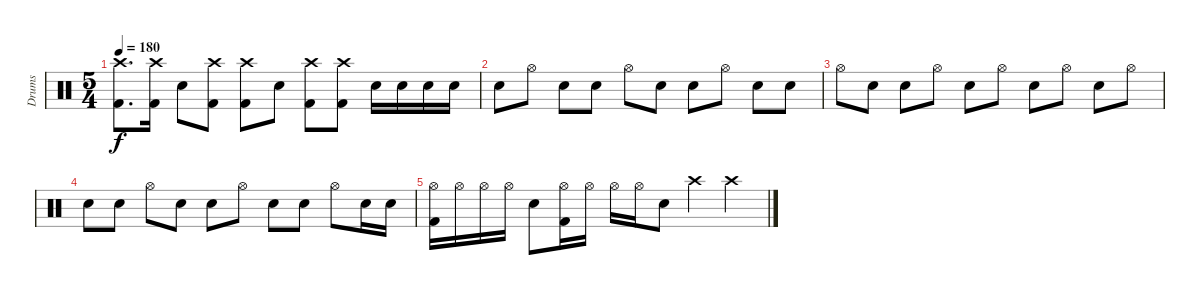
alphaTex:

\track ("Drums" "Drums") {instrument percussion}
\staff {score}
\articulation defaults
\ts (5 4)
\tempo 180
\clef neutral
\ks c
("Crash high (hit)" "Kick (hit) 2").8{d dy f} ("Crash high (hit)" "Kick (hit) 2").16 "Snare (hit) 2".8 ("Crash high (hit)" "Kick (hit) 2").8 ("Crash high (hit)" "Kick (hit) 2").8 "Snare (hit) 2".8 ("Crash high (hit)" "Kick (hit) 2").8 ("Crash high (hit)" "Kick (hit) 2").8 "Snare (hit) 2".16 "Snare (hit) 2".16 "Snare (hit) 2".16 "Snare (hit) 2".16 |
"Snare (hit) 2".8 "Hi-Hat (open)".8 "Snare (hit) 2".8 "Snare (hit) 2".8 "Hi-Hat (open)".8 "Snare (hit) 2".8 "Snare (hit) 2".8 "Hi-Hat (open)".8 "Snare (hit) 2".8 "Snare (hit) 2".8 |
"Hi-Hat (open)".8 "Snare (hit) 2".8 "Snare (hit) 2".8 "Hi-Hat (open)".8 "Snare (hit) 2".8 "Hi-Hat (open)".8 "Snare (hit) 2".8 "Hi-Hat (open)".8 "Snare (hit) 2".8 "Hi-Hat (open)".8 |
"Snare (hit) 2".8 "Snare (hit) 2".8 "Hi-Hat (open)".8 "Snare (hit) 2".8 "Snare (hit) 2".8 "Hi-Hat (open)".8 "Snare (hit) 2".8 "Snare (hit) 2".8 "Hi-Hat (open)".8 "Snare (hit) 2".16 "Snare (hit) 2".16 |
("Hi-Hat (open)" "Kick (hit) 2").16 "Hi-Hat (open)".16 "Hi-Hat (open)".16 "Hi-Hat (open)".16 "Snare (hit) 2".8 ("Hi-Hat (open)" "Kick (hit) 2").16 "Hi-Hat (open)".16 "Hi-Hat (open)".16 "Hi-Hat (open)".16 "Snare (hit) 2".8 "Crash high (hit)".4 "Crash high (hit)".4
